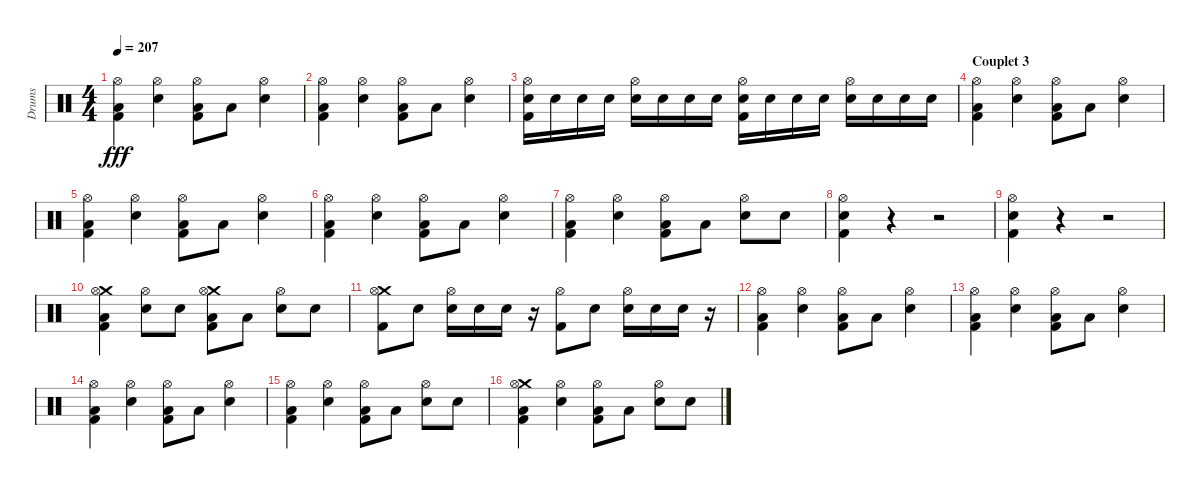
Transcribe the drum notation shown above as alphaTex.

\track ("Drums" "Drums") {instrument percussion}
\staff {score}
\articulation defaults
\ts (4 4)
\tempo 207
\clef neutral
\ks c
("Hi-Hat (open)" "Low Floor Tom (hit)" "Kick (hit) 2").4{dy fff} ("Hi-Hat (open)" "Snare (hit) 2").4 ("Hi-Hat (open)" "Low Floor Tom (hit)" "Kick (hit) 2").8 "Low Floor Tom (hit)".8 ("Hi-Hat (open)" "Snare (hit) 2").4 |
("Hi-Hat (open)" "Low Floor Tom (hit)" "Kick (hit) 2").4 ("Hi-Hat (open)" "Snare (hit) 2").4 ("Hi-Hat (open)" "Low Floor Tom (hit)" "Kick (hit) 2").8 "Low Floor Tom (hit)".8 ("Hi-Hat (open)" "Snare (hit) 2").4 |
("Hi-Hat (open)" "Snare (hit) 2" "Kick (hit) 2").16 "Snare (hit) 2".16 "Snare (hit) 2".16 "Snare (hit) 2".16 ("Hi-Hat (open)" "Snare (hit) 2").16 "Snare (hit) 2".16 "Snare (hit) 2".16 "Snare (hit) 2".16 ("Hi-Hat (open)" "Snare (hit) 2" "Kick (hit) 2").16 "Snare (hit) 2".16 "Snare (hit) 2".16 "Snare (hit) 2".16 ("Hi-Hat (open)" "Snare (hit) 2").16 "Snare (hit) 2".16 "Snare (hit) 2".16 "Snare (hit) 2".16 |
\section ("" "Couplet 3")
("Hi-Hat (open)" "Low Floor Tom (hit)" "Kick (hit) 2").4 ("Hi-Hat (open)" "Snare (hit) 2").4 ("Hi-Hat (open)" "Low Floor Tom (hit)" "Kick (hit) 2").8 "Low Floor Tom (hit)".8 ("Hi-Hat (open)" "Snare (hit) 2").4 |
("Hi-Hat (open)" "Low Floor Tom (hit)" "Kick (hit) 2").4 ("Hi-Hat (open)" "Snare (hit) 2").4 ("Hi-Hat (open)" "Low Floor Tom (hit)" "Kick (hit) 2").8 "Low Floor Tom (hit)".8 ("Hi-Hat (open)" "Snare (hit) 2").4 |
("Hi-Hat (open)" "Low Floor Tom (hit)" "Kick (hit) 2").4 ("Hi-Hat (open)" "Snare (hit) 2").4 ("Hi-Hat (open)" "Low Floor Tom (hit)" "Kick (hit) 2").8 "Low Floor Tom (hit)".8 ("Hi-Hat (open)" "Snare (hit) 2").4 |
("Hi-Hat (open)" "Low Floor Tom (hit)" "Kick (hit) 2").4 ("Hi-Hat (open)" "Snare (hit) 2").4 ("Hi-Hat (open)" "Low Floor Tom (hit)" "Kick (hit) 2").8 "Low Floor Tom (hit)".8 ("Hi-Hat (open)" "Snare (hit) 2").8 "Snare (hit) 2".8 |
("Hi-Hat (open)" "Snare (hit) 2" "Kick (hit) 2").4 r.4 r.2 |
("Hi-Hat (open)" "Snare (hit) 2" "Kick (hit) 2").4 r.4 r.2 |
("Crash medium (hit)" "Hi-Hat (open)" "Low Floor Tom (hit)" "Kick (hit) 2").4 ("Hi-Hat (open)" "Snare (hit) 2").8 "Snare (hit) 2".8 ("Crash medium (hit)" "Hi-Hat (open)" "Low Floor Tom (hit)" "Kick (hit) 2").8 "Low Floor Tom (hit)".8 ("Hi-Hat (open)" "Snare (hit) 2").8 "Snare (hit) 2".8 |
("Crash medium (hit)" "Hi-Hat (open)" "Kick (hit) 2").8 "Snare (hit) 2".8 ("Hi-Hat (open)" "Snare (hit) 2").16 "Snare (hit) 2".16 "Snare (hit) 2".16 r.16 ("Hi-Hat (open)" "Kick (hit) 2").8 "Snare (hit) 2".8 ("Hi-Hat (open)" "Snare (hit) 2").16 "Snare (hit) 2".16 "Snare (hit) 2".16 r.16 |
("Hi-Hat (open)" "Low Floor Tom (hit)" "Kick (hit) 2").4 ("Hi-Hat (open)" "Snare (hit) 2").4 ("Hi-Hat (open)" "Low Floor Tom (hit)" "Kick (hit) 2").8 "Low Floor Tom (hit)".8 ("Hi-Hat (open)" "Snare (hit) 2").4 |
("Hi-Hat (open)" "Low Floor Tom (hit)" "Kick (hit) 2").4 ("Hi-Hat (open)" "Snare (hit) 2").4 ("Hi-Hat (open)" "Low Floor Tom (hit)" "Kick (hit) 2").8 "Low Floor Tom (hit)".8 ("Hi-Hat (open)" "Snare (hit) 2").4 |
("Hi-Hat (open)" "Low Floor Tom (hit)" "Kick (hit) 2").4 ("Hi-Hat (open)" "Snare (hit) 2").4 ("Hi-Hat (open)" "Low Floor Tom (hit)" "Kick (hit) 2").8 "Low Floor Tom (hit)".8 ("Hi-Hat (open)" "Snare (hit) 2").4 |
("Hi-Hat (open)" "Low Floor Tom (hit)" "Kick (hit) 2").4 ("Hi-Hat (open)" "Snare (hit) 2").4 ("Hi-Hat (open)" "Low Floor Tom (hit)" "Kick (hit) 2").8 "Low Floor Tom (hit)".8 ("Hi-Hat (open)" "Snare (hit) 2").8 "Snare (hit) 2".8 |
("Crash medium (hit)" "Hi-Hat (open)" "Low Floor Tom (hit)" "Kick (hit) 2").4 ("Hi-Hat (open)" "Snare (hit) 2").4 ("Hi-Hat (open)" "Low Floor Tom (hit)" "Kick (hit) 2").8 "Low Floor Tom (hit)".8 ("Hi-Hat (open)" "Snare (hit) 2").8 "Snare (hit) 2".8
